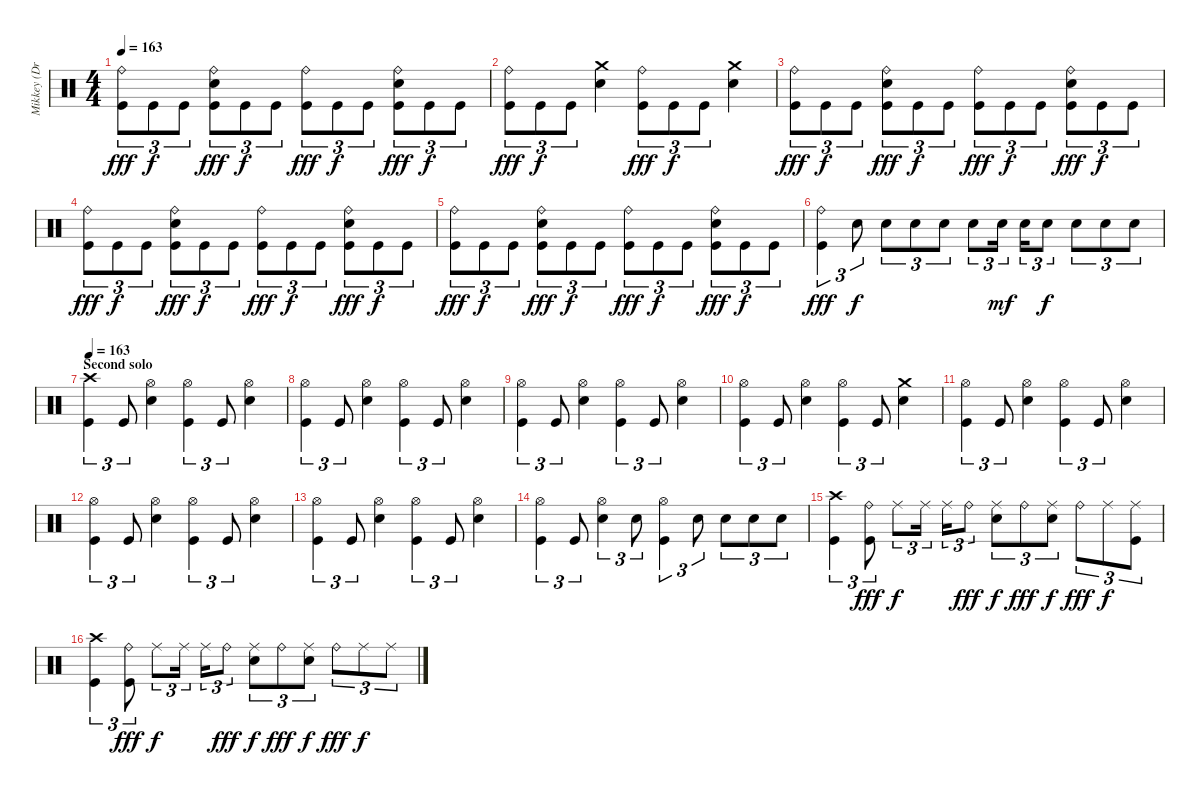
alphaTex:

\track ("Mikkey (Drums)" "Mikkey (Dr") {instrument percussion}
\staff {score}
\articulation defaults
\ts (4 4)
\tempo 163
\clef neutral
\ks c
("Ride (bell)" "Kick (hit)").8{tu (3 2) dy fff} "Kick (hit)".8{tu (3 2) dy f} "Kick (hit)".8{tu (3 2)} ("Ride (bell)" "Electric Snare (hit)" "Kick (hit)").8{tu (3 2) dy fff} "Kick (hit)".8{tu (3 2) dy f} "Kick (hit)".8{tu (3 2)} ("Ride (bell)" "Kick (hit)").8{tu (3 2) dy fff} "Kick (hit)".8{tu (3 2) dy f} "Kick (hit)".8{tu (3 2)} ("Ride (bell)" "Electric Snare (hit)" "Kick (hit)").8{tu (3 2) dy fff} "Kick (hit)".8{tu (3 2) dy f} "Kick (hit)".8{tu (3 2)} |
("Ride (bell)" "Kick (hit)").8{tu (3 2) dy fff} "Kick (hit)".8{tu (3 2) dy f} "Kick (hit)".8{tu (3 2)} ("Crash medium (hit)" "Electric Snare (hit)").4 ("Ride (bell)" "Kick (hit)").8{tu (3 2) dy fff} "Kick (hit)".8{tu (3 2) dy f} "Kick (hit)".8{tu (3 2)} ("Crash medium (hit)" "Electric Snare (hit)").4 |
("Ride (bell)" "Kick (hit)").8{tu (3 2) dy fff} "Kick (hit)".8{tu (3 2) dy f} "Kick (hit)".8{tu (3 2)} ("Ride (bell)" "Electric Snare (hit)" "Kick (hit)").8{tu (3 2) dy fff} "Kick (hit)".8{tu (3 2) dy f} "Kick (hit)".8{tu (3 2)} ("Ride (bell)" "Kick (hit)").8{tu (3 2) dy fff} "Kick (hit)".8{tu (3 2) dy f} "Kick (hit)".8{tu (3 2)} ("Ride (bell)" "Electric Snare (hit)" "Kick (hit)").8{tu (3 2) dy fff} "Kick (hit)".8{tu (3 2) dy f} "Kick (hit)".8{tu (3 2)} |
("Ride (bell)" "Kick (hit)").8{tu (3 2) dy fff} "Kick (hit)".8{tu (3 2) dy f} "Kick (hit)".8{tu (3 2)} ("Ride (bell)" "Electric Snare (hit)" "Kick (hit)").8{tu (3 2) dy fff} "Kick (hit)".8{tu (3 2) dy f} "Kick (hit)".8{tu (3 2)} ("Ride (bell)" "Kick (hit)").8{tu (3 2) dy fff} "Kick (hit)".8{tu (3 2) dy f} "Kick (hit)".8{tu (3 2)} ("Ride (bell)" "Electric Snare (hit)" "Kick (hit)").8{tu (3 2) dy fff} "Kick (hit)".8{tu (3 2) dy f} "Kick (hit)".8{tu (3 2)} |
("Ride (bell)" "Kick (hit)").8{tu (3 2) dy fff} "Kick (hit)".8{tu (3 2) dy f} "Kick (hit)".8{tu (3 2)} ("Ride (bell)" "Electric Snare (hit)" "Kick (hit)").8{tu (3 2) dy fff} "Kick (hit)".8{tu (3 2) dy f} "Kick (hit)".8{tu (3 2)} ("Ride (bell)" "Kick (hit)").8{tu (3 2) dy fff} "Kick (hit)".8{tu (3 2) dy f} "Kick (hit)".8{tu (3 2)} ("Ride (bell)" "Electric Snare (hit)" "Kick (hit)").8{tu (3 2) dy fff} "Kick (hit)".8{tu (3 2) dy f} "Kick (hit)".8{tu (3 2)} |
("Ride (bell)" "Kick (hit)").4{tu (3 2) dy fff} "Electric Snare (hit)".8{tu (3 2) dy f} "Electric Snare (hit)".8{tu (3 2)} "Electric Snare (hit)".8{tu (3 2)} "Electric Snare (hit)".8{tu (3 2)} "Electric Snare (hit)".8{tu (3 2)} "Electric Snare (hit)".16{tu (3 2) dy mf} "Electric Snare (hit)".16{tu (3 2)} "Electric Snare (hit)".8{tu (3 2) dy f} "Electric Snare (hit)".8{tu (3 2)} "Electric Snare (hit)".8{tu (3 2)} "Electric Snare (hit)".8{tu (3 2)} |
\section ("" "Second solo")
\tempo 163
("Crash high (hit)" "Kick (hit)").4{tu (3 2)} "Kick (hit)".8{tu (3 2)} ("Hi-Hat (open)" "Electric Snare (hit)").4 ("Hi-Hat (open)" "Kick (hit)").4{tu (3 2)} "Kick (hit)".8{tu (3 2)} ("Hi-Hat (open)" "Electric Snare (hit)").4 |
("Hi-Hat (open)" "Kick (hit)").4{tu (3 2)} "Kick (hit)".8{tu (3 2)} ("Hi-Hat (open)" "Electric Snare (hit)").4 ("Hi-Hat (open)" "Kick (hit)").4{tu (3 2)} "Kick (hit)".8{tu (3 2)} ("Hi-Hat (open)" "Electric Snare (hit)").4 |
("Hi-Hat (open)" "Kick (hit)").4{tu (3 2)} "Kick (hit)".8{tu (3 2)} ("Hi-Hat (open)" "Electric Snare (hit)").4 ("Hi-Hat (open)" "Kick (hit)").4{tu (3 2)} "Kick (hit)".8{tu (3 2)} ("Hi-Hat (open)" "Electric Snare (hit)").4 |
("Hi-Hat (open)" "Kick (hit)").4{tu (3 2)} "Kick (hit)".8{tu (3 2)} ("Hi-Hat (open)" "Electric Snare (hit)").4 ("Hi-Hat (open)" "Kick (hit)").4{tu (3 2)} "Kick (hit)".8{tu (3 2)} ("Crash medium (hit)" "Electric Snare (hit)").4 |
("Hi-Hat (open)" "Kick (hit)").4{tu (3 2)} "Kick (hit)".8{tu (3 2)} ("Hi-Hat (open)" "Electric Snare (hit)").4 ("Hi-Hat (open)" "Kick (hit)").4{tu (3 2)} "Kick (hit)".8{tu (3 2)} ("Hi-Hat (open)" "Electric Snare (hit)").4 |
("Hi-Hat (open)" "Kick (hit)").4{tu (3 2)} "Kick (hit)".8{tu (3 2)} ("Hi-Hat (open)" "Electric Snare (hit)").4 ("Hi-Hat (open)" "Kick (hit)").4{tu (3 2)} "Kick (hit)".8{tu (3 2)} ("Hi-Hat (open)" "Electric Snare (hit)").4 |
("Hi-Hat (open)" "Kick (hit)").4{tu (3 2)} "Kick (hit)".8{tu (3 2)} ("Hi-Hat (open)" "Electric Snare (hit)").4 ("Hi-Hat (open)" "Kick (hit)").4{tu (3 2)} "Kick (hit)".8{tu (3 2)} ("Hi-Hat (open)" "Electric Snare (hit)").4 |
("Hi-Hat (open)" "Kick (hit)").4{tu (3 2)} "Kick (hit)".8{tu (3 2)} ("Hi-Hat (open)" "Electric Snare (hit)").4{tu (3 2)} "Electric Snare (hit)".8{tu (3 2)} ("Hi-Hat (open)" "Kick (hit)").4{tu (3 2)} "Electric Snare (hit)".8{tu (3 2)} "Electric Snare (hit)".8{tu (3 2)} "Electric Snare (hit)".8{tu (3 2)} "Electric Snare (hit)".8{tu (3 2)} |
("Crash high (hit)" "Kick (hit)").4{tu (3 2)} ("Ride (bell)" "Kick (hit)").8{tu (3 2) dy fff} "Ride (middle)".8{tu (3 2) dy f} "Ride (middle)".16{tu (3 2)} "Ride (middle)".16{tu (3 2)} "Ride (bell)".8{tu (3 2) dy fff} ("Ride (middle)" "Electric Snare (hit)").8{tu (3 2) dy f} "Ride (bell)".8{tu (3 2) dy fff} ("Ride (middle)" "Electric Snare (hit)").8{tu (3 2) dy f} "Ride (bell)".8{tu (3 2) dy fff} "Ride (middle)".8{tu (3 2) dy f} ("Ride (middle)" "Kick (hit)").8{tu (3 2)} |
("Crash high (hit)" "Kick (hit)").4{tu (3 2)} ("Ride (bell)" "Kick (hit)").8{tu (3 2) dy fff} "Ride (middle)".8{tu (3 2) dy f} "Ride (middle)".16{tu (3 2)} "Ride (middle)".16{tu (3 2)} "Ride (bell)".8{tu (3 2) dy fff} ("Ride (middle)" "Electric Snare (hit)").8{tu (3 2) dy f} "Ride (bell)".8{tu (3 2) dy fff} ("Ride (middle)" "Electric Snare (hit)").8{tu (3 2) dy f} "Ride (bell)".8{tu (3 2) dy fff} "Ride (middle)".8{tu (3 2) dy f} "Ride (middle)".8{tu (3 2)}
